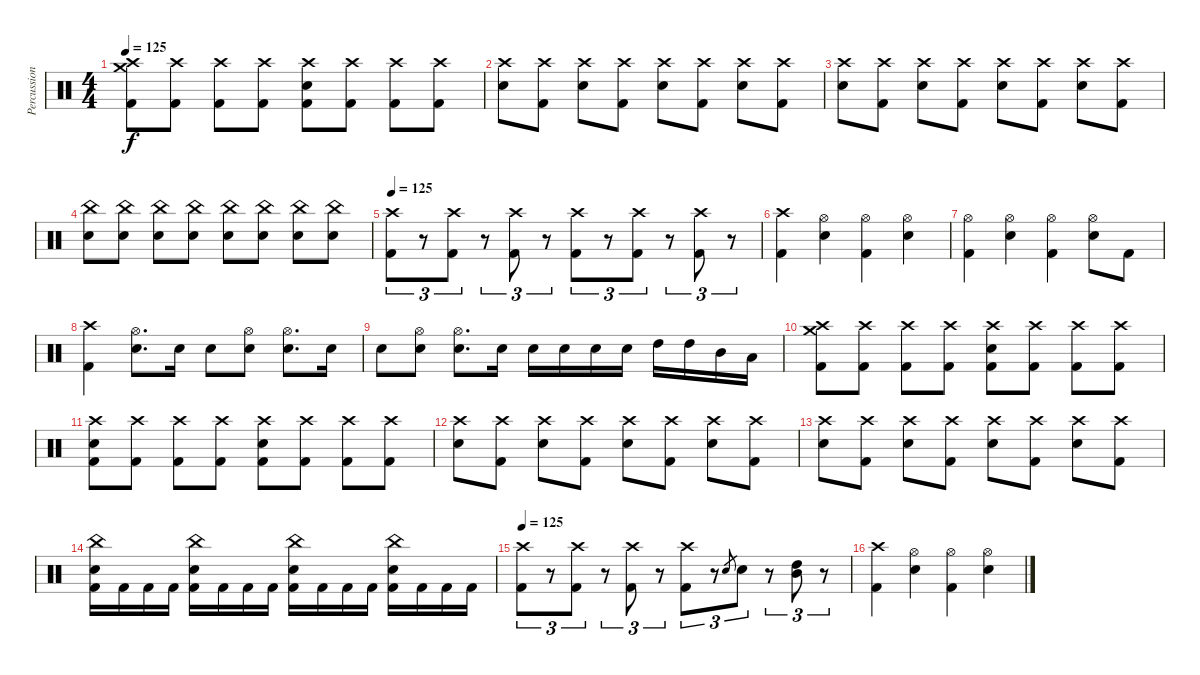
\track ("Percussion" "Percussion") {instrument percussion}
\staff {score}
\articulation defaults
\ts (4 4)
\tempo 125
\clef neutral
\ks c
("Crash high (hit)" "Crash medium (hit)" "Kick (hit) 2").8{dy f} ("Crash high (hit)" "Kick (hit) 2").8 ("Crash high (hit)" "Kick (hit) 2").8 ("Crash high (hit)" "Kick (hit) 2").8 ("Crash high (hit)" "Electric Snare (hit)" "Kick (hit) 2").8 ("Crash high (hit)" "Kick (hit) 2").8 ("Crash high (hit)" "Kick (hit) 2").8 ("Crash high (hit)" "Kick (hit) 2").8 |
("Crash high (hit)" "Electric Snare (hit)").8 ("Crash high (hit)" "Kick (hit) 2").8 ("Crash high (hit)" "Electric Snare (hit)").8 ("Crash high (hit)" "Kick (hit) 2").8 ("Crash high (hit)" "Electric Snare (hit)").8 ("Crash high (hit)" "Kick (hit) 2").8 ("Crash high (hit)" "Electric Snare (hit)").8 ("Crash high (hit)" "Kick (hit) 2").8 |
("Crash high (hit)" "Electric Snare (hit)").8 ("Crash high (hit)" "Kick (hit) 2").8 ("Crash high (hit)" "Electric Snare (hit)").8 ("Crash high (hit)" "Kick (hit) 2").8 ("Crash high (hit)" "Electric Snare (hit)").8 ("Crash high (hit)" "Kick (hit) 2").8 ("Crash high (hit)" "Electric Snare (hit)").8 ("Crash high (hit)" "Kick (hit) 2").8 |
("China (hit)" "Electric Snare (hit)").8 ("China (hit)" "Electric Snare (hit)").8 ("China (hit)" "Electric Snare (hit)").8 ("China (hit)" "Electric Snare (hit)").8 ("China (hit)" "Electric Snare (hit)").8 ("China (hit)" "Electric Snare (hit)").8 ("China (hit)" "Electric Snare (hit)").8 ("China (hit)" "Electric Snare (hit)").8 |
\tempo 125
("Crash high (hit)" "Kick (hit) 2").8{tu (3 2) volume 13} r.8{tu (3 2) volume 0} ("Crash high (hit)" "Kick (hit) 2").8{tu (3 2) volume 13} r.8{tu (3 2) volume 0} ("Crash high (hit)" "Kick (hit) 2").8{tu (3 2) volume 13} r.8{tu (3 2) volume 0} ("Crash high (hit)" "Kick (hit) 2").8{tu (3 2) volume 13} r.8{tu (3 2) volume 0} ("Crash high (hit)" "Kick (hit) 2").8{tu (3 2) volume 13} r.8{tu (3 2) volume 0} ("Crash high (hit)" "Kick (hit) 2").8{tu (3 2) volume 13} r.8{tu (3 2) volume 0} |
("Crash high (hit)" "Kick (hit) 2").4{volume 13} ("Hi-Hat (open)" "Electric Snare (hit)").4 ("Hi-Hat (open)" "Kick (hit) 2").4 ("Hi-Hat (open)" "Electric Snare (hit)").4 |
("Hi-Hat (open)" "Kick (hit) 2").4 ("Hi-Hat (open)" "Electric Snare (hit)").4 ("Hi-Hat (open)" "Kick (hit) 2").4 ("Hi-Hat (open)" "Electric Snare (hit)").8 "Kick (hit) 2".8 |
("Crash high (hit)" "Kick (hit) 2").4 ("Hi-Hat (open)" "Electric Snare (hit)").8{d} "Electric Snare (hit)".16 "Electric Snare (hit)".8 ("Hi-Hat (open)" "Electric Snare (hit)").8 ("Hi-Hat (open)" "Electric Snare (hit)").8{d} "Electric Snare (hit)".16 |
"Electric Snare (hit)".8 ("Hi-Hat (open)" "Electric Snare (hit)").8 ("Hi-Hat (open)" "Electric Snare (hit)").8{d} "Electric Snare (hit)".16 "Electric Snare (hit)".16 "Electric Snare (hit)".16 "Electric Snare (hit)".16 "Electric Snare (hit)".16 "High Tom (hit)".16 "High Tom (hit)".16 "Mid Tom (hit)".16 "Low Tom (hit)".16 |
("Crash high (hit)" "Crash medium (hit)" "Kick (hit) 2").8 ("Crash high (hit)" "Kick (hit) 2").8 ("Crash high (hit)" "Kick (hit) 2").8 ("Crash high (hit)" "Kick (hit) 2").8 ("Crash high (hit)" "Electric Snare (hit)" "Kick (hit) 2").8 ("Crash high (hit)" "Kick (hit) 2").8 ("Crash high (hit)" "Kick (hit) 2").8 ("Crash high (hit)" "Kick (hit) 2").8 |
("Crash high (hit)" "Electric Snare (hit)" "Kick (hit) 2").8 ("Crash high (hit)" "Kick (hit) 2").8 ("Crash high (hit)" "Kick (hit) 2").8 ("Crash high (hit)" "Kick (hit) 2").8 ("Crash high (hit)" "Electric Snare (hit)" "Kick (hit) 2").8 ("Crash high (hit)" "Kick (hit) 2").8 ("Crash high (hit)" "Kick (hit) 2").8 ("Crash high (hit)" "Kick (hit) 2").8 |
("Crash high (hit)" "Electric Snare (hit)").8 ("Crash high (hit)" "Kick (hit) 2").8 ("Crash high (hit)" "Electric Snare (hit)").8 ("Crash high (hit)" "Kick (hit) 2").8 ("Crash high (hit)" "Electric Snare (hit)").8 ("Crash high (hit)" "Kick (hit) 2").8 ("Crash high (hit)" "Electric Snare (hit)").8 ("Crash high (hit)" "Kick (hit) 2").8 |
("Crash high (hit)" "Electric Snare (hit)").8 ("Crash high (hit)" "Kick (hit) 2").8 ("Crash high (hit)" "Electric Snare (hit)").8 ("Crash high (hit)" "Kick (hit) 2").8 ("Crash high (hit)" "Electric Snare (hit)").8 ("Crash high (hit)" "Kick (hit) 2").8 ("Crash high (hit)" "Electric Snare (hit)").8 ("Crash high (hit)" "Kick (hit) 2").8 |
("China (hit)" "Electric Snare (hit)" "Kick (hit) 2").16 "Kick (hit) 2".16 "Kick (hit) 2".16 "Kick (hit) 2".16 ("China (hit)" "Electric Snare (hit)" "Kick (hit) 2").16 "Kick (hit) 2".16 "Kick (hit) 2".16 "Kick (hit) 2".16 ("China (hit)" "Electric Snare (hit)" "Kick (hit) 2").16 "Kick (hit) 2".16 "Kick (hit) 2".16 "Kick (hit) 2".16 ("China (hit)" "Electric Snare (hit)" "Kick (hit) 2").16 "Kick (hit) 2".16 "Kick (hit) 2".16 "Kick (hit) 2".16 |
\tempo 125
("Crash high (hit)" "Kick (hit) 2").8{tu (3 2) volume 13} r.8{tu (3 2) volume 0} ("Crash high (hit)" "Kick (hit) 2").8{tu (3 2) volume 13} r.8{tu (3 2) volume 0} ("Crash high (hit)" "Kick (hit) 2").8{tu (3 2) volume 13} r.8{tu (3 2) volume 0} ("Crash high (hit)" "Kick (hit) 2").8{tu (3 2) volume 13} r.8{tu (3 2)} "Electric Snare (hit)".8{gr} "Electric Snare (hit)".8{tu (3 2) volume 13} r.8{tu (3 2)} ("Mid Tom (hit)" "High Tom (hit)").8{tu (3 2) volume 13} r.8{tu (3 2)} |
("Crash high (hit)" "Kick (hit) 2").4{volume 13} ("Hi-Hat (open)" "Electric Snare (hit)").4 ("Hi-Hat (open)" "Kick (hit) 2").4 ("Hi-Hat (open)" "Electric Snare (hit)").4
